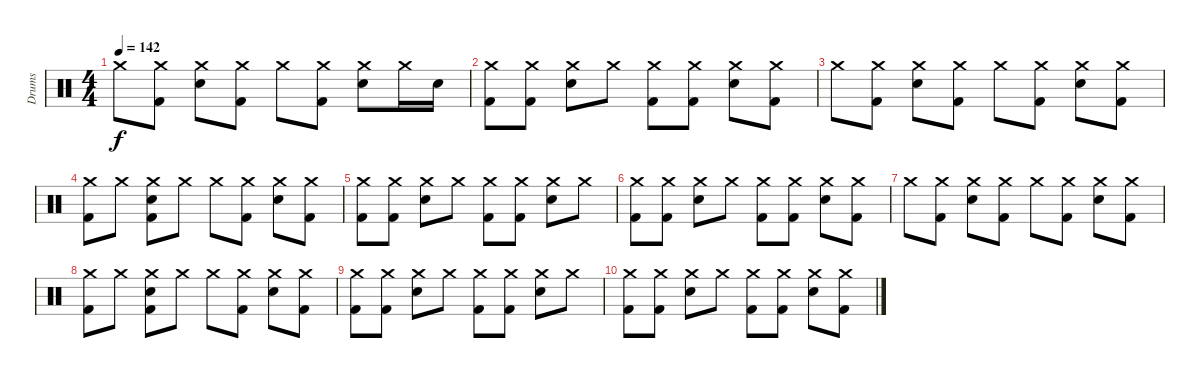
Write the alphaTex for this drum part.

\track ("Drums" "Drums") {instrument percussion}
\staff {score}
\articulation defaults
\ts (4 4)
\tempo 142
\clef neutral
\ks c "Crash medium (hit)".8{dy f}
("Crash medium (hit)" "Kick (hit) 2").8 ("Crash medium (hit)" "Snare (hit) 2").8 ("Crash medium (hit)" "Kick (hit) 2").8 "Crash medium (hit)".8 ("Crash medium (hit)" "Kick (hit) 2").8 ("Crash medium (hit)" "Snare (hit) 2").8 "Crash medium (hit)".16 "Snare (hit) 2".16 |
("Crash medium (hit)" "Kick (hit) 2").8 ("Crash medium (hit)" "Kick (hit) 2").8 ("Crash medium (hit)" "Snare (hit) 2").8 "Crash medium (hit)".8 ("Crash medium (hit)" "Kick (hit) 2").8 ("Crash medium (hit)" "Kick (hit) 2").8 ("Crash medium (hit)" "Snare (hit) 2").8 ("Crash medium (hit)" "Kick (hit) 2").8 |
"Crash medium (hit)".8 ("Crash medium (hit)" "Kick (hit) 2").8 ("Crash medium (hit)" "Snare (hit) 2").8 ("Crash medium (hit)" "Kick (hit) 2").8 "Crash medium (hit)".8 ("Crash medium (hit)" "Kick (hit) 2").8 ("Crash medium (hit)" "Snare (hit) 2").8 ("Crash medium (hit)" "Kick (hit) 2").8 |
("Crash medium (hit)" "Kick (hit) 2").8 "Crash medium (hit)".8 ("Crash medium (hit)" "Snare (hit) 2" "Kick (hit) 2").8 "Crash medium (hit)".8 "Crash medium (hit)".8 ("Crash medium (hit)" "Kick (hit) 2").8 ("Crash medium (hit)" "Snare (hit) 2").8 ("Crash medium (hit)" "Kick (hit) 2").8 |
("Crash medium (hit)" "Kick (hit) 2").8 ("Crash medium (hit)" "Kick (hit) 2").8 ("Crash medium (hit)" "Snare (hit) 2").8 "Crash medium (hit)".8 ("Crash medium (hit)" "Kick (hit) 2").8 ("Crash medium (hit)" "Kick (hit) 2").8 ("Crash medium (hit)" "Snare (hit) 2").8 "Crash medium (hit)".8 |
("Crash medium (hit)" "Kick (hit) 2").8 ("Crash medium (hit)" "Kick (hit) 2").8 ("Crash medium (hit)" "Snare (hit) 2").8 "Crash medium (hit)".8 ("Crash medium (hit)" "Kick (hit) 2").8 ("Crash medium (hit)" "Kick (hit) 2").8 ("Crash medium (hit)" "Snare (hit) 2").8 ("Crash medium (hit)" "Kick (hit) 2").8 |
"Crash medium (hit)".8 ("Crash medium (hit)" "Kick (hit) 2").8 ("Crash medium (hit)" "Snare (hit) 2").8 ("Crash medium (hit)" "Kick (hit) 2").8 "Crash medium (hit)".8 ("Crash medium (hit)" "Kick (hit) 2").8 ("Crash medium (hit)" "Snare (hit) 2").8 ("Crash medium (hit)" "Kick (hit) 2").8 |
("Crash medium (hit)" "Kick (hit) 2").8 "Crash medium (hit)".8 ("Crash medium (hit)" "Snare (hit) 2" "Kick (hit) 2").8 "Crash medium (hit)".8 "Crash medium (hit)".8 ("Crash medium (hit)" "Kick (hit) 2").8 ("Crash medium (hit)" "Snare (hit) 2").8 ("Crash medium (hit)" "Kick (hit) 2").8 |
("Crash medium (hit)" "Kick (hit) 2").8 ("Crash medium (hit)" "Kick (hit) 2").8 ("Crash medium (hit)" "Snare (hit) 2").8 "Crash medium (hit)".8 ("Crash medium (hit)" "Kick (hit) 2").8 ("Crash medium (hit)" "Kick (hit) 2").8 ("Crash medium (hit)" "Snare (hit) 2").8 "Crash medium (hit)".8 |
("Crash medium (hit)" "Kick (hit) 2").8 ("Crash medium (hit)" "Kick (hit) 2").8 ("Crash medium (hit)" "Snare (hit) 2").8 "Crash medium (hit)".8 ("Crash medium (hit)" "Kick (hit) 2").8 ("Crash medium (hit)" "Kick (hit) 2").8 ("Crash medium (hit)" "Snare (hit) 2").8 ("Crash medium (hit)" "Kick (hit) 2").8
